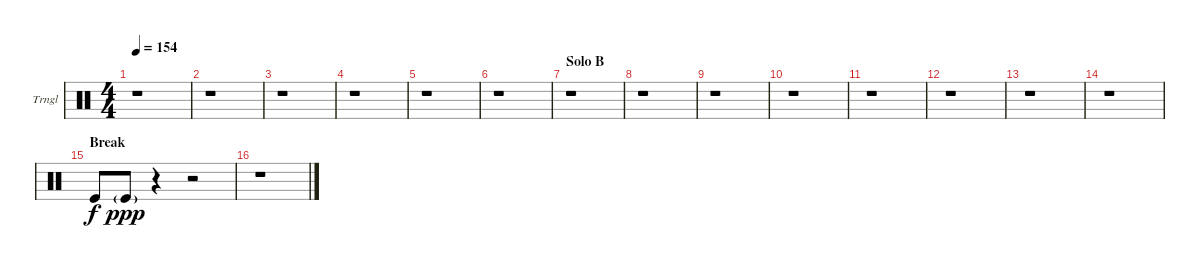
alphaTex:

\defaultSystemsLayout 4
\bracketExtendMode groupsimilarinstruments
\firstSystemTrackNameOrientation horizontal
\otherSystemsTrackNameOrientation horizontal
\track ("Triangle" "Trngl") {instrument percussion}
\staff {score}
\articulation defaults
\ts (4 4)
\tempo 154
\clef neutral
\ks c
r.1{dy ppp} |
r.1 |
r.1 |
r.1 |
r.1 |
r.1 |
\section ("" "Solo B")
r.1 |
r.1 |
r.1 |
r.1 |
r.1 |
r.1 |
r.1 |
r.1 |
\section ("" "Break")
"Kick (hit)".8{dy f} "Kick (hit)"{g}.8{dy ppp} r.4 r.2 |
r.1
